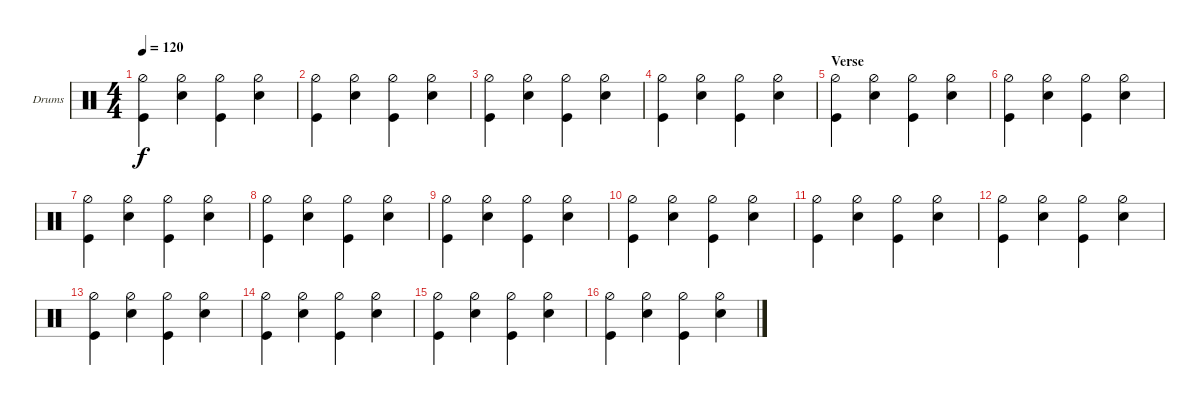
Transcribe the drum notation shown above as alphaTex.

\defaultSystemsLayout 4
\bracketExtendMode groupsimilarinstruments
\firstSystemTrackNameOrientation horizontal
\otherSystemsTrackNameOrientation horizontal
\track ("Drumkit" "Drums") {instrument percussion}
\staff {score}
\articulation defaults
\ts (4 4)
\tempo 120
\clef neutral
\ks c
("Kick (hit)" "Hi-Hat (half)").4{dy f} ("Snare (hit) 2" "Hi-Hat (half)").4 ("Kick (hit)" "Hi-Hat (half)").4 ("Snare (hit) 2" "Hi-Hat (half)").4 |
("Kick (hit)" "Hi-Hat (half)").4 ("Snare (hit) 2" "Hi-Hat (half)").4 ("Kick (hit)" "Hi-Hat (half)").4 ("Snare (hit) 2" "Hi-Hat (half)").4 |
("Kick (hit)" "Hi-Hat (half)").4 ("Snare (hit) 2" "Hi-Hat (half)").4 ("Kick (hit)" "Hi-Hat (half)").4 ("Snare (hit) 2" "Hi-Hat (half)").4 |
("Kick (hit)" "Hi-Hat (half)").4 ("Snare (hit) 2" "Hi-Hat (half)").4 ("Kick (hit)" "Hi-Hat (half)").4 ("Snare (hit) 2" "Hi-Hat (half)").4 |
\section ("" "Verse")
("Kick (hit)" "Hi-Hat (half)").4 ("Snare (hit) 2" "Hi-Hat (half)").4 ("Kick (hit)" "Hi-Hat (half)").4 ("Snare (hit) 2" "Hi-Hat (half)").4 |
("Kick (hit)" "Hi-Hat (half)").4 ("Snare (hit) 2" "Hi-Hat (half)").4 ("Kick (hit)" "Hi-Hat (half)").4 ("Snare (hit) 2" "Hi-Hat (half)").4 |
("Kick (hit)" "Hi-Hat (half)").4 ("Snare (hit) 2" "Hi-Hat (half)").4 ("Kick (hit)" "Hi-Hat (half)").4 ("Snare (hit) 2" "Hi-Hat (half)").4 |
("Kick (hit)" "Hi-Hat (half)").4 ("Snare (hit) 2" "Hi-Hat (half)").4 ("Kick (hit)" "Hi-Hat (half)").4 ("Snare (hit) 2" "Hi-Hat (half)").4 |
("Kick (hit)" "Hi-Hat (half)").4 ("Snare (hit) 2" "Hi-Hat (half)").4 ("Kick (hit)" "Hi-Hat (half)").4 ("Snare (hit) 2" "Hi-Hat (half)").4 |
("Kick (hit)" "Hi-Hat (half)").4 ("Snare (hit) 2" "Hi-Hat (half)").4 ("Kick (hit)" "Hi-Hat (half)").4 ("Snare (hit) 2" "Hi-Hat (half)").4 |
("Kick (hit)" "Hi-Hat (half)").4 ("Snare (hit) 2" "Hi-Hat (half)").4 ("Kick (hit)" "Hi-Hat (half)").4 ("Snare (hit) 2" "Hi-Hat (half)").4 |
("Kick (hit)" "Hi-Hat (half)").4 ("Snare (hit) 2" "Hi-Hat (half)").4 ("Kick (hit)" "Hi-Hat (half)").4 ("Snare (hit) 2" "Hi-Hat (half)").4 |
("Kick (hit)" "Hi-Hat (half)").4 ("Snare (hit) 2" "Hi-Hat (half)").4 ("Kick (hit)" "Hi-Hat (half)").4 ("Snare (hit) 2" "Hi-Hat (half)").4 |
("Kick (hit)" "Hi-Hat (half)").4 ("Snare (hit) 2" "Hi-Hat (half)").4 ("Kick (hit)" "Hi-Hat (half)").4 ("Snare (hit) 2" "Hi-Hat (half)").4 |
("Kick (hit)" "Hi-Hat (half)").4 ("Snare (hit) 2" "Hi-Hat (half)").4 ("Kick (hit)" "Hi-Hat (half)").4 ("Snare (hit) 2" "Hi-Hat (half)").4 |
("Kick (hit)" "Hi-Hat (half)").4 ("Snare (hit) 2" "Hi-Hat (half)").4 ("Kick (hit)" "Hi-Hat (half)").4 ("Snare (hit) 2" "Hi-Hat (half)").4
